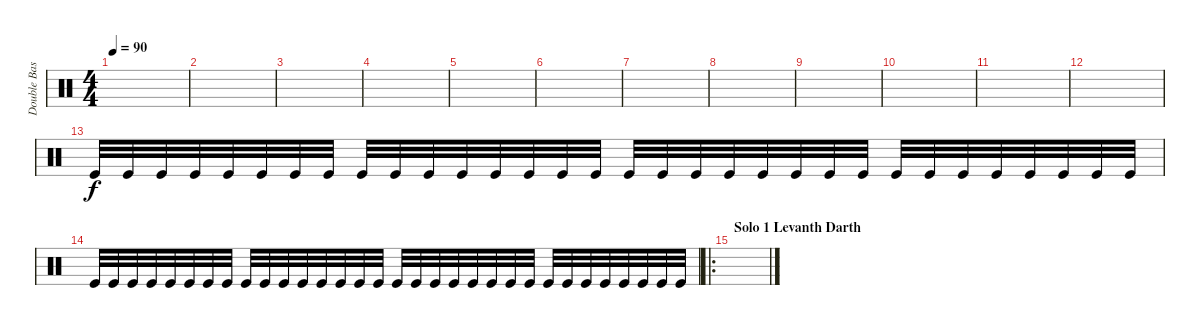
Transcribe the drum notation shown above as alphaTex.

\track ("Double Bass Drums" "Double Bas") {instrument percussion}
\staff {score}
\articulation defaults
\ts (4 4)
\tempo 90
\clef neutral
\ks c
|
|
|
|
|
|
|
|
|
|
|
|
"Kick (hit)".32 "Kick (hit)".32 "Kick (hit)".32 "Kick (hit)".32 "Kick (hit)".32 "Kick (hit)".32 "Kick (hit)".32 "Kick (hit)".32 "Kick (hit)".32 "Kick (hit)".32 "Kick (hit)".32 "Kick (hit)".32 "Kick (hit)".32 "Kick (hit)".32 "Kick (hit)".32 "Kick (hit)".32 "Kick (hit)".32 "Kick (hit)".32 "Kick (hit)".32 "Kick (hit)".32 "Kick (hit)".32 "Kick (hit)".32 "Kick (hit)".32 "Kick (hit)".32 "Kick (hit)".32 "Kick (hit)".32 "Kick (hit)".32 "Kick (hit)".32 "Kick (hit)".32 "Kick (hit)".32 "Kick (hit)".32 "Kick (hit)".32 |
"Kick (hit)".32 "Kick (hit)".32 "Kick (hit)".32 "Kick (hit)".32 "Kick (hit)".32 "Kick (hit)".32 "Kick (hit)".32 "Kick (hit)".32 "Kick (hit)".32 "Kick (hit)".32 "Kick (hit)".32 "Kick (hit)".32 "Kick (hit)".32 "Kick (hit)".32 "Kick (hit)".32 "Kick (hit)".32 "Kick (hit)".32 "Kick (hit)".32 "Kick (hit)".32 "Kick (hit)".32 "Kick (hit)".32 "Kick (hit)".32 "Kick (hit)".32 "Kick (hit)".32 "Kick (hit)".32 "Kick (hit)".32 "Kick (hit)".32 "Kick (hit)".32 "Kick (hit)".32 "Kick (hit)".32 "Kick (hit)".32 "Kick (hit)".32 |
\ro
\section ("" "Solo 1 Levanth Darth")
